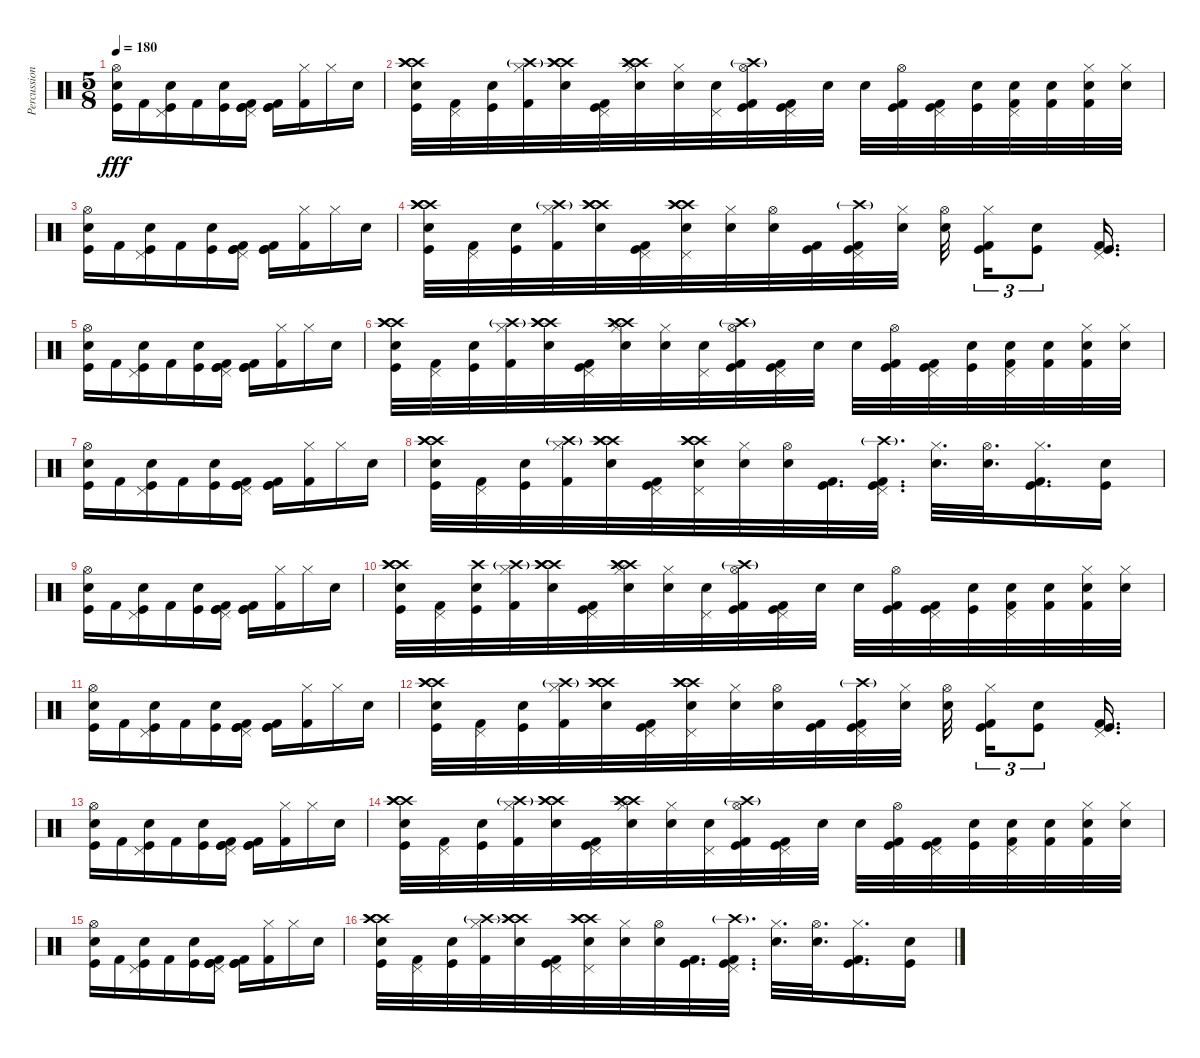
\track ("Percussion" "Percussion") {instrument percussion}
\staff {score}
\articulation defaults
\ts (5 8)
\tempo 180
\clef neutral
\ks c
("Hi-Hat (open)" "Snare (hit) 2" "Kick (hit)").16{dy fff} "Kick (hit) 2".16 ("Pedal Hi-Hat (hit)" "Snare (hit) 2" "Kick (hit)").16 "Kick (hit) 2".16 ("Snare (hit) 2" "Kick (hit)").16 ("Pedal Hi-Hat (hit)" "Kick (hit)" "Kick (hit) 2" "Kick (hit)").16 ("Kick (hit)" "Kick (hit) 2" "Kick (hit)").16 ("Hi-Hat (closed)" "Kick (hit) 2").16 "Hi-Hat (closed)".16 "Snare (hit) 2".16 |
("Crash high (hit)" "Crash high (hit)" "Snare (hit) 2" "Crash high (hit)" "Kick (hit)").32 ("Pedal Hi-Hat (hit)" "Kick (hit) 2").32 ("Snare (hit) 2" "Kick (hit)").32 ("Hi-Hat (closed)" "Crash high (hit)"{g} "Kick (hit) 2").32 ("Crash high (hit)" "Crash high (hit)" "Snare (hit) 2" "Crash high (hit)").32 ("Pedal Hi-Hat (hit)" "Kick (hit) 2" "Kick (hit)").32 ("Hi-Hat (closed)" "Crash high (hit)" "Crash high (hit)" "Snare (hit) 2" "Crash high (hit)").32 ("Hi-Hat (closed)" "Snare (hit) 2").32 ("Pedal Hi-Hat (hit)" "Snare (hit) 2").32 ("Hi-Hat (open)" "Crash high (hit)"{g} "Kick (hit) 2" "Kick (hit)").32 ("Pedal Hi-Hat (hit)" "Kick (hit)" "Kick (hit) 2").32 "Snare (hit) 2".32 "Snare (hit) 2".32 ("Hi-Hat (open)" "Kick (hit)" "Kick (hit) 2").32 ("Pedal Hi-Hat (hit)" "Kick (hit)" "Kick (hit) 2").32 ("Snare (hit) 2" "Kick (hit)").32 ("Pedal Hi-Hat (hit)" "Snare (hit) 2" "Kick (hit) 2").32 ("Snare (hit) 2" "Kick (hit) 2").32 ("Hi-Hat (closed)" "Snare (hit) 2" "Kick (hit) 2").32 ("Hi-Hat (closed)" "Snare (hit) 2").32 |
("Hi-Hat (open)" "Snare (hit) 2" "Kick (hit)").16 "Kick (hit) 2".16 ("Pedal Hi-Hat (hit)" "Snare (hit) 2" "Kick (hit)").16 "Kick (hit) 2".16 ("Snare (hit) 2" "Kick (hit)").16 ("Pedal Hi-Hat (hit)" "Kick (hit)" "Kick (hit) 2" "Kick (hit)").16 ("Kick (hit)" "Kick (hit) 2" "Kick (hit)").16 ("Hi-Hat (closed)" "Kick (hit) 2").16 "Hi-Hat (closed)".16 "Snare (hit) 2".16 |
("Crash high (hit)" "Crash high (hit)" "Snare (hit) 2" "Crash high (hit)" "Kick (hit)").32 ("Pedal Hi-Hat (hit)" "Kick (hit) 2").32 ("Snare (hit) 2" "Kick (hit)").32 ("Hi-Hat (closed)" "Crash high (hit)"{g} "Kick (hit) 2").32 ("Crash high (hit)" "Crash high (hit)" "Snare (hit) 2" "Crash high (hit)").32 ("Pedal Hi-Hat (hit)" "Kick (hit) 2" "Kick (hit)").32 ("Pedal Hi-Hat (hit)" "Crash high (hit)" "Crash high (hit)" "Snare (hit) 2" "Crash high (hit)").32 ("Hi-Hat (closed)" "Snare (hit) 2").32 ("Hi-Hat (open)" "Snare (hit) 2").32 ("Kick (hit) 2" "Kick (hit)").32 ("Pedal Hi-Hat (hit)" "Crash high (hit)"{g} "Kick (hit)" "Kick (hit) 2").32 ("Hi-Hat (closed)" "Snare (hit) 2").32 ("Hi-Hat (open)" "Snare (hit) 2").32{beam splitsecondary} ("Hi-Hat (closed)" "Kick (hit)" "Kick (hit) 2").16{tu (3 2)} ("Snare (hit) 2" "Kick (hit)").8{tu (3 2)} ("Pedal Hi-Hat (hit)" "Kick (hit)" "Kick (hit) 2").16{d} |
("Hi-Hat (open)" "Snare (hit) 2" "Kick (hit)").16 "Kick (hit) 2".16 ("Pedal Hi-Hat (hit)" "Snare (hit) 2" "Kick (hit)").16 "Kick (hit) 2".16 ("Snare (hit) 2" "Kick (hit)").16 ("Pedal Hi-Hat (hit)" "Kick (hit)" "Kick (hit) 2" "Kick (hit)").16 ("Kick (hit)" "Kick (hit) 2" "Kick (hit)").16 ("Hi-Hat (closed)" "Kick (hit) 2").16 "Hi-Hat (closed)".16 "Snare (hit) 2".16 |
("Crash high (hit)" "Crash high (hit)" "Snare (hit) 2" "Crash high (hit)" "Kick (hit)").32 ("Pedal Hi-Hat (hit)" "Kick (hit) 2").32 ("Snare (hit) 2" "Kick (hit)").32 ("Hi-Hat (closed)" "Crash high (hit)"{g} "Kick (hit) 2").32 ("Crash high (hit)" "Crash high (hit)" "Snare (hit) 2" "Crash high (hit)").32 ("Pedal Hi-Hat (hit)" "Kick (hit) 2" "Kick (hit)").32 ("Hi-Hat (closed)" "Crash high (hit)" "Crash high (hit)" "Snare (hit) 2" "Crash high (hit)").32 ("Hi-Hat (closed)" "Snare (hit) 2").32 ("Pedal Hi-Hat (hit)" "Snare (hit) 2").32 ("Hi-Hat (open)" "Crash high (hit)"{g} "Kick (hit) 2" "Kick (hit)").32 ("Pedal Hi-Hat (hit)" "Kick (hit)" "Kick (hit) 2").32 "Snare (hit) 2".32 "Snare (hit) 2".32 ("Hi-Hat (open)" "Kick (hit)" "Kick (hit) 2").32 ("Pedal Hi-Hat (hit)" "Kick (hit)" "Kick (hit) 2").32 ("Snare (hit) 2" "Kick (hit)").32 ("Pedal Hi-Hat (hit)" "Snare (hit) 2" "Kick (hit) 2").32 ("Snare (hit) 2" "Kick (hit) 2").32 ("Hi-Hat (closed)" "Snare (hit) 2" "Kick (hit) 2").32 ("Hi-Hat (closed)" "Snare (hit) 2").32 |
("Hi-Hat (open)" "Snare (hit) 2" "Kick (hit)").16 "Kick (hit) 2".16 ("Pedal Hi-Hat (hit)" "Snare (hit) 2" "Kick (hit)").16 "Kick (hit) 2".16 ("Snare (hit) 2" "Kick (hit)").16 ("Pedal Hi-Hat (hit)" "Kick (hit)" "Kick (hit) 2" "Kick (hit)").16 ("Kick (hit)" "Kick (hit) 2" "Kick (hit)").16 ("Hi-Hat (closed)" "Kick (hit) 2").16 "Hi-Hat (closed)".16 "Snare (hit) 2".16 |
("Crash high (hit)" "Crash high (hit)" "Snare (hit) 2" "Crash high (hit)" "Kick (hit)").32 ("Pedal Hi-Hat (hit)" "Kick (hit) 2").32 ("Snare (hit) 2" "Kick (hit)").32 ("Hi-Hat (closed)" "Crash high (hit)"{g} "Kick (hit) 2").32 ("Crash high (hit)" "Crash high (hit)" "Snare (hit) 2" "Crash high (hit)").32 ("Pedal Hi-Hat (hit)" "Kick (hit) 2" "Kick (hit)").32 ("Pedal Hi-Hat (hit)" "Crash high (hit)" "Crash high (hit)" "Snare (hit) 2" "Crash high (hit)").32 ("Hi-Hat (closed)" "Snare (hit) 2").32 ("Hi-Hat (open)" "Snare (hit) 2").32 ("Kick (hit) 2" "Kick (hit)").32{d} ("Pedal Hi-Hat (hit)" "Crash high (hit)"{g} "Kick (hit)" "Kick (hit) 2").32{d} ("Hi-Hat (closed)" "Snare (hit) 2").32{d} ("Hi-Hat (open)" "Snare (hit) 2").32{d} ("Hi-Hat (closed)" "Kick (hit)" "Kick (hit) 2").16{d} ("Snare (hit) 2" "Kick (hit)").16 |
("Hi-Hat (open)" "Snare (hit) 2" "Kick (hit)").16 "Kick (hit) 2".16 ("Pedal Hi-Hat (hit)" "Snare (hit) 2" "Kick (hit)").16 "Kick (hit) 2".16 ("Snare (hit) 2" "Kick (hit)").16 ("Pedal Hi-Hat (hit)" "Kick (hit)" "Kick (hit) 2" "Kick (hit)").16 ("Kick (hit)" "Kick (hit) 2" "Kick (hit)").16 ("Hi-Hat (closed)" "Kick (hit) 2").16 "Hi-Hat (closed)".16 "Snare (hit) 2".16 |
("Crash high (hit)" "Crash high (hit)" "Snare (hit) 2" "Crash high (hit)" "Kick (hit)").32 ("Pedal Hi-Hat (hit)" "Kick (hit) 2").32 ("Snare (hit) 2" "Crash high (hit)" "Kick (hit)").32 ("Hi-Hat (closed)" "Crash high (hit)"{g} "Kick (hit) 2").32 ("Crash high (hit)" "Crash high (hit)" "Snare (hit) 2" "Crash high (hit)").32 ("Pedal Hi-Hat (hit)" "Kick (hit) 2" "Kick (hit)").32 ("Hi-Hat (closed)" "Crash high (hit)" "Crash high (hit)" "Snare (hit) 2" "Crash high (hit)").32 ("Hi-Hat (closed)" "Snare (hit) 2").32 ("Pedal Hi-Hat (hit)" "Snare (hit) 2").32 ("Hi-Hat (open)" "Crash high (hit)"{g} "Kick (hit) 2" "Kick (hit)").32 ("Pedal Hi-Hat (hit)" "Kick (hit)" "Kick (hit) 2").32 "Snare (hit) 2".32 "Snare (hit) 2".32 ("Hi-Hat (open)" "Kick (hit)" "Kick (hit) 2").32 ("Pedal Hi-Hat (hit)" "Kick (hit)" "Kick (hit) 2").32 ("Snare (hit) 2" "Kick (hit)").32 ("Pedal Hi-Hat (hit)" "Snare (hit) 2" "Kick (hit) 2").32 ("Snare (hit) 2" "Kick (hit) 2").32 ("Hi-Hat (closed)" "Snare (hit) 2" "Kick (hit) 2").32 ("Hi-Hat (closed)" "Snare (hit) 2").32 |
("Hi-Hat (open)" "Snare (hit) 2" "Kick (hit)").16 "Kick (hit) 2".16 ("Pedal Hi-Hat (hit)" "Snare (hit) 2" "Kick (hit)").16 "Kick (hit) 2".16 ("Snare (hit) 2" "Kick (hit)").16 ("Pedal Hi-Hat (hit)" "Kick (hit)" "Kick (hit) 2" "Kick (hit)").16 ("Kick (hit)" "Kick (hit) 2" "Kick (hit)").16 ("Hi-Hat (closed)" "Kick (hit) 2").16 "Hi-Hat (closed)".16 "Snare (hit) 2".16 |
("Crash high (hit)" "Crash high (hit)" "Snare (hit) 2" "Crash high (hit)" "Kick (hit)").32 ("Pedal Hi-Hat (hit)" "Kick (hit) 2").32 ("Snare (hit) 2" "Kick (hit)").32 ("Hi-Hat (closed)" "Crash high (hit)"{g} "Kick (hit) 2").32 ("Crash high (hit)" "Crash high (hit)" "Snare (hit) 2" "Crash high (hit)").32 ("Pedal Hi-Hat (hit)" "Kick (hit) 2" "Kick (hit)").32 ("Pedal Hi-Hat (hit)" "Crash high (hit)" "Crash high (hit)" "Snare (hit) 2" "Crash high (hit)").32 ("Hi-Hat (closed)" "Snare (hit) 2").32 ("Hi-Hat (open)" "Snare (hit) 2").32 ("Kick (hit) 2" "Kick (hit)").32 ("Pedal Hi-Hat (hit)" "Crash high (hit)"{g} "Kick (hit)" "Kick (hit) 2").32 ("Hi-Hat (closed)" "Snare (hit) 2").32 ("Hi-Hat (open)" "Snare (hit) 2").32{beam splitsecondary} ("Hi-Hat (closed)" "Kick (hit)" "Kick (hit) 2").16{tu (3 2)} ("Snare (hit) 2" "Kick (hit)").8{tu (3 2)} ("Pedal Hi-Hat (hit)" "Kick (hit)" "Kick (hit) 2").16{d} |
("Hi-Hat (open)" "Snare (hit) 2" "Kick (hit)").16 "Kick (hit) 2".16 ("Pedal Hi-Hat (hit)" "Snare (hit) 2" "Kick (hit)").16 "Kick (hit) 2".16 ("Snare (hit) 2" "Kick (hit)").16 ("Pedal Hi-Hat (hit)" "Kick (hit)" "Kick (hit) 2" "Kick (hit)").16 ("Kick (hit)" "Kick (hit) 2" "Kick (hit)").16 ("Hi-Hat (closed)" "Kick (hit) 2").16 "Hi-Hat (closed)".16 "Snare (hit) 2".16 |
("Crash high (hit)" "Crash high (hit)" "Crash high (hit)" "Snare (hit) 2" "Kick (hit)").32 ("Pedal Hi-Hat (hit)" "Kick (hit) 2").32 ("Snare (hit) 2" "Kick (hit)").32 ("Hi-Hat (closed)" "Crash high (hit)"{g} "Kick (hit) 2").32 ("Crash high (hit)" "Crash high (hit)" "Snare (hit) 2" "Crash high (hit)").32 ("Pedal Hi-Hat (hit)" "Kick (hit) 2" "Kick (hit)").32 ("Hi-Hat (closed)" "Crash high (hit)" "Crash high (hit)" "Snare (hit) 2" "Crash high (hit)").32 ("Hi-Hat (closed)" "Snare (hit) 2").32 ("Pedal Hi-Hat (hit)" "Snare (hit) 2").32 ("Hi-Hat (open)" "Crash high (hit)"{g} "Kick (hit) 2" "Kick (hit)").32 ("Pedal Hi-Hat (hit)" "Kick (hit)" "Kick (hit) 2").32 "Snare (hit) 2".32 "Snare (hit) 2".32 ("Hi-Hat (open)" "Kick (hit)" "Kick (hit) 2").32 ("Pedal Hi-Hat (hit)" "Kick (hit)" "Kick (hit) 2").32 ("Snare (hit) 2" "Kick (hit)").32 ("Pedal Hi-Hat (hit)" "Snare (hit) 2" "Kick (hit) 2").32 ("Snare (hit) 2" "Kick (hit) 2").32 ("Hi-Hat (closed)" "Snare (hit) 2" "Kick (hit) 2").32 ("Hi-Hat (closed)" "Snare (hit) 2").32 |
("Hi-Hat (open)" "Snare (hit) 2" "Kick (hit)").16 "Kick (hit) 2".16 ("Pedal Hi-Hat (hit)" "Snare (hit) 2" "Kick (hit)").16 "Kick (hit) 2".16 ("Snare (hit) 2" "Kick (hit)").16 ("Pedal Hi-Hat (hit)" "Kick (hit)" "Kick (hit) 2" "Kick (hit)").16 ("Kick (hit)" "Kick (hit) 2" "Kick (hit)").16 ("Hi-Hat (closed)" "Kick (hit) 2").16 "Hi-Hat (closed)".16 "Snare (hit) 2".16 |
("Crash high (hit)" "Crash high (hit)" "Snare (hit) 2" "Crash high (hit)" "Kick (hit)").32 ("Pedal Hi-Hat (hit)" "Kick (hit) 2").32 ("Snare (hit) 2" "Kick (hit)").32 ("Hi-Hat (closed)" "Crash high (hit)"{g} "Kick (hit) 2").32 ("Crash high (hit)" "Crash high (hit)" "Snare (hit) 2" "Crash high (hit)").32 ("Pedal Hi-Hat (hit)" "Kick (hit) 2" "Kick (hit)").32 ("Pedal Hi-Hat (hit)" "Crash high (hit)" "Crash high (hit)" "Snare (hit) 2" "Crash high (hit)").32 ("Hi-Hat (closed)" "Snare (hit) 2").32 ("Hi-Hat (open)" "Snare (hit) 2").32 ("Kick (hit) 2" "Kick (hit)").32{d} ("Pedal Hi-Hat (hit)" "Crash high (hit)"{g} "Kick (hit)" "Kick (hit) 2").32{d} ("Hi-Hat (closed)" "Snare (hit) 2").32{d} ("Hi-Hat (open)" "Snare (hit) 2").32{d} ("Hi-Hat (closed)" "Kick (hit)" "Kick (hit) 2").16{d} ("Snare (hit) 2" "Kick (hit)").16
